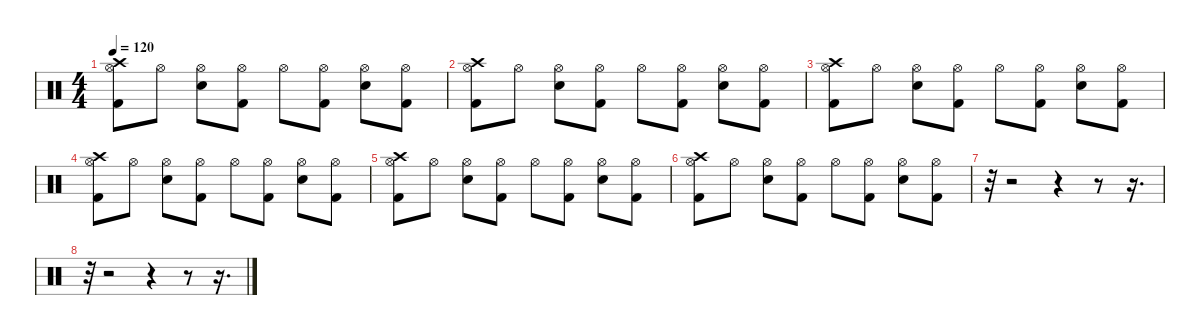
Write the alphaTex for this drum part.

\defaultSystemsLayout 4
\hideDynamics
\bracketExtendMode nobrackets
\singleTrackTrackNamePolicy hidden
\multiTrackTrackNamePolicy hidden
\otherSystemsTrackNameOrientation horizontal
\track ("Percussion" "drm.") {instrument percussion}
\staff {score}
\articulation defaults
\ts (4 4)
\tempo 120
\clef neutral
\ks c
("Kick (hit) 2" "Hi-Hat (open)" "Crash high (hit)").8{dy f beam Down} "Hi-Hat (open)".8{beam Down} ("Snare (hit) 2" "Hi-Hat (open)").8{beam Down} ("Kick (hit) 2" "Hi-Hat (open)").8{beam Down} "Hi-Hat (open)".8{beam Down} ("Kick (hit) 2" "Hi-Hat (open)").8{beam Down} ("Snare (hit) 2" "Hi-Hat (open)").8{beam Down} ("Kick (hit) 2" "Hi-Hat (open)").8{beam Down} |
("Kick (hit) 2" "Hi-Hat (open)" "Crash high (hit)").8{beam Down} "Hi-Hat (open)".8{beam Down} ("Snare (hit) 2" "Hi-Hat (open)").8{beam Down} ("Kick (hit) 2" "Hi-Hat (open)").8{beam Down} "Hi-Hat (open)".8{beam Down} ("Kick (hit) 2" "Hi-Hat (open)").8{beam Down} ("Snare (hit) 2" "Hi-Hat (open)").8{beam Down} ("Kick (hit) 2" "Hi-Hat (open)").8{beam Down} |
("Kick (hit) 2" "Hi-Hat (open)" "Crash high (hit)").8{beam Down} "Hi-Hat (open)".8{beam Down} ("Snare (hit) 2" "Hi-Hat (open)").8{beam Down} ("Kick (hit) 2" "Hi-Hat (open)").8{beam Down} "Hi-Hat (open)".8{beam Down} ("Kick (hit) 2" "Hi-Hat (open)").8{beam Down} ("Snare (hit) 2" "Hi-Hat (open)").8{beam Down} ("Kick (hit) 2" "Hi-Hat (open)").8{beam Down} |
("Kick (hit) 2" "Hi-Hat (open)" "Crash high (hit)").8{beam Down} "Hi-Hat (open)".8{beam Down} ("Snare (hit) 2" "Hi-Hat (open)").8{beam Down} ("Kick (hit) 2" "Hi-Hat (open)").8{beam Down} "Hi-Hat (open)".8{beam Down} ("Kick (hit) 2" "Hi-Hat (open)").8{beam Down} ("Snare (hit) 2" "Hi-Hat (open)").8{beam Down} ("Kick (hit) 2" "Hi-Hat (open)").8{beam Down} |
("Kick (hit) 2" "Hi-Hat (open)" "Crash high (hit)").8{beam Down} "Hi-Hat (open)".8{beam Down} ("Snare (hit) 2" "Hi-Hat (open)").8{beam Down} ("Kick (hit) 2" "Hi-Hat (open)").8{beam Down} "Hi-Hat (open)".8{beam Down} ("Kick (hit) 2" "Hi-Hat (open)").8{beam Down} ("Snare (hit) 2" "Hi-Hat (open)").8{beam Down} ("Kick (hit) 2" "Hi-Hat (open)").8{beam Down} |
("Kick (hit) 2" "Hi-Hat (open)" "Crash high (hit)").8{beam Down} "Hi-Hat (open)".8{beam Down} ("Snare (hit) 2" "Hi-Hat (open)").8{beam Down} ("Kick (hit) 2" "Hi-Hat (open)").8{beam Down} "Hi-Hat (open)".8{beam Down} ("Kick (hit) 2" "Hi-Hat (open)").8{beam Down} ("Snare (hit) 2" "Hi-Hat (open)").8{beam Down} ("Kick (hit) 2" "Hi-Hat (open)").8{beam Down} |
r.32{beam Down} r.2{beam Down} r.4{beam Down} r.8{beam Down} r.16{d beam Down} |
r.32{beam Down} r.2{beam Down} r.4{beam Down} r.8{beam Down} r.16{d beam Down}
